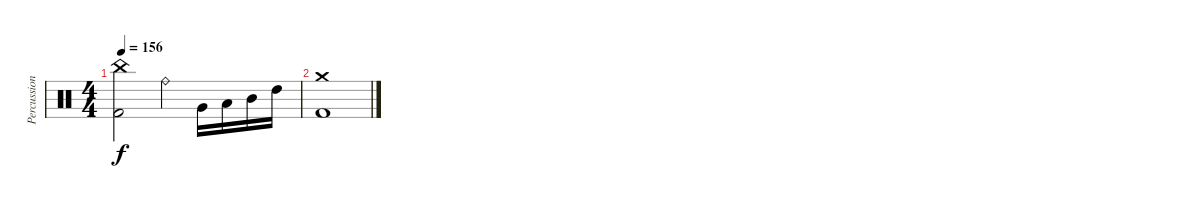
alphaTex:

\track ("Percussion" "Percussion") {instrument percussion}
\staff {score}
\articulation defaults
\ts (4 4)
\tempo 156
\clef neutral
\ks c
("China (hit)" "Kick (hit) 2").2{dy f} "Ride (bell)".4 "Very Low Tom (hit)".16 "Low Tom (hit)".16 "Mid Tom (hit)".16 "High Tom (hit)".16 |
("Crash medium (hit)" "Kick (hit) 2").1
